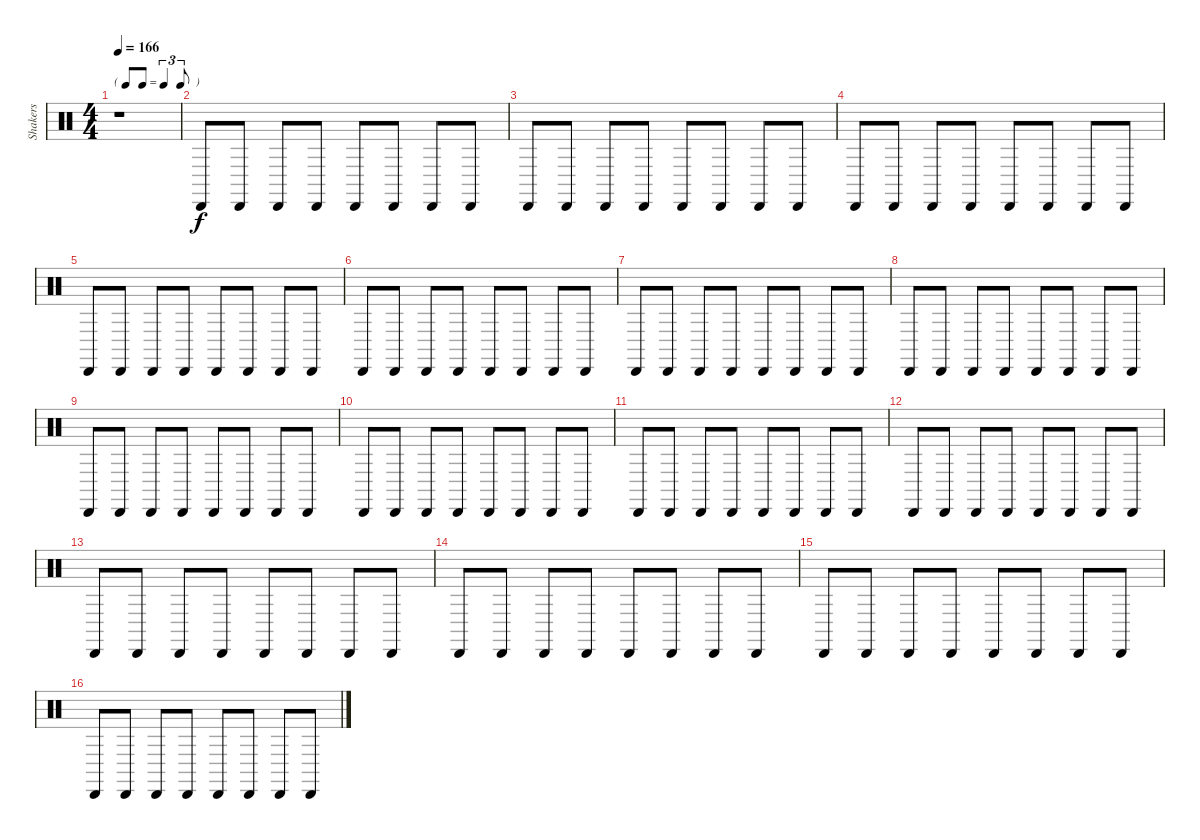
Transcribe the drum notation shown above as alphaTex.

\track ("Shakers" "Shakers") {instrument percussion}
\staff {score}
\articulation defaults
\ts (4 4)
\tf triplet8th
\tempo 166
\clef neutral
\ks c
r.1{dy f} |
"Cabasa (hit)".8 "Cabasa (hit)".8 "Cabasa (hit)".8 "Cabasa (hit)".8 "Cabasa (hit)".8 "Cabasa (hit)".8 "Cabasa (hit)".8 "Cabasa (hit)".8 |
"Cabasa (hit)".8 "Cabasa (hit)".8 "Cabasa (hit)".8 "Cabasa (hit)".8 "Cabasa (hit)".8 "Cabasa (hit)".8 "Cabasa (hit)".8 "Cabasa (hit)".8 |
"Cabasa (hit)".8 "Cabasa (hit)".8 "Cabasa (hit)".8 "Cabasa (hit)".8 "Cabasa (hit)".8 "Cabasa (hit)".8 "Cabasa (hit)".8 "Cabasa (hit)".8 |
"Cabasa (hit)".8 "Cabasa (hit)".8 "Cabasa (hit)".8 "Cabasa (hit)".8 "Cabasa (hit)".8 "Cabasa (hit)".8 "Cabasa (hit)".8 "Cabasa (hit)".8 |
"Cabasa (hit)".8 "Cabasa (hit)".8 "Cabasa (hit)".8 "Cabasa (hit)".8 "Cabasa (hit)".8 "Cabasa (hit)".8 "Cabasa (hit)".8 "Cabasa (hit)".8 |
"Cabasa (hit)".8 "Cabasa (hit)".8 "Cabasa (hit)".8 "Cabasa (hit)".8 "Cabasa (hit)".8 "Cabasa (hit)".8 "Cabasa (hit)".8 "Cabasa (hit)".8 |
"Cabasa (hit)".8 "Cabasa (hit)".8 "Cabasa (hit)".8 "Cabasa (hit)".8 "Cabasa (hit)".8 "Cabasa (hit)".8 "Cabasa (hit)".8 "Cabasa (hit)".8 |
"Cabasa (hit)".8 "Cabasa (hit)".8 "Cabasa (hit)".8 "Cabasa (hit)".8 "Cabasa (hit)".8 "Cabasa (hit)".8 "Cabasa (hit)".8 "Cabasa (hit)".8 |
"Cabasa (hit)".8 "Cabasa (hit)".8 "Cabasa (hit)".8 "Cabasa (hit)".8 "Cabasa (hit)".8 "Cabasa (hit)".8 "Cabasa (hit)".8 "Cabasa (hit)".8 |
"Cabasa (hit)".8 "Cabasa (hit)".8 "Cabasa (hit)".8 "Cabasa (hit)".8 "Cabasa (hit)".8 "Cabasa (hit)".8 "Cabasa (hit)".8 "Cabasa (hit)".8 |
"Cabasa (hit)".8 "Cabasa (hit)".8 "Cabasa (hit)".8 "Cabasa (hit)".8 "Cabasa (hit)".8 "Cabasa (hit)".8 "Cabasa (hit)".8 "Cabasa (hit)".8 |
"Cabasa (hit)".8 "Cabasa (hit)".8 "Cabasa (hit)".8 "Cabasa (hit)".8 "Cabasa (hit)".8 "Cabasa (hit)".8 "Cabasa (hit)".8 "Cabasa (hit)".8 |
"Cabasa (hit)".8 "Cabasa (hit)".8 "Cabasa (hit)".8 "Cabasa (hit)".8 "Cabasa (hit)".8 "Cabasa (hit)".8 "Cabasa (hit)".8 "Cabasa (hit)".8 |
"Cabasa (hit)".8 "Cabasa (hit)".8 "Cabasa (hit)".8 "Cabasa (hit)".8 "Cabasa (hit)".8 "Cabasa (hit)".8 "Cabasa (hit)".8 "Cabasa (hit)".8 |
"Cabasa (hit)".8 "Cabasa (hit)".8 "Cabasa (hit)".8 "Cabasa (hit)".8 "Cabasa (hit)".8 "Cabasa (hit)".8 "Cabasa (hit)".8 "Cabasa (hit)".8
